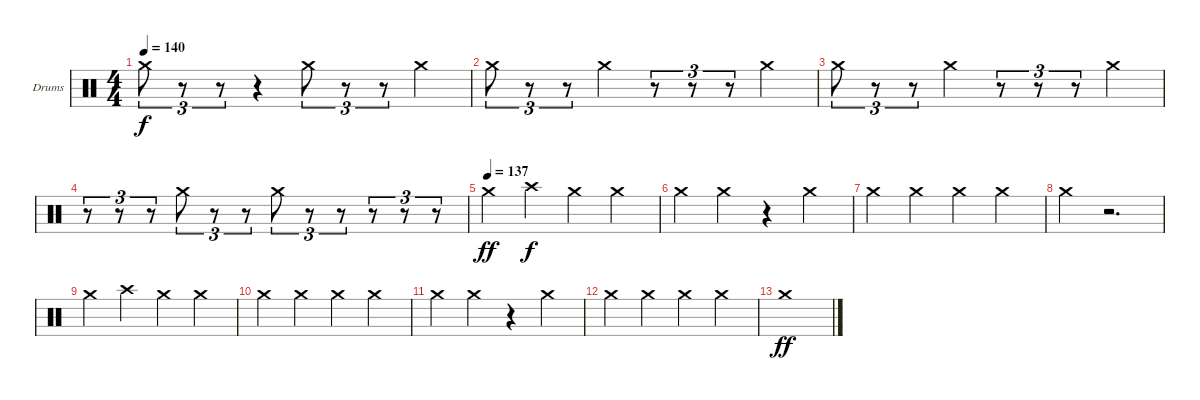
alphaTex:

\defaultSystemsLayout 4
\bracketExtendMode groupsimilarinstruments
\firstSystemTrackNameOrientation horizontal
\otherSystemsTrackNameOrientation horizontal
\track ("Drumkit" "Drums") {instrument percussion}
\staff {score}
\articulation defaults
\ts (4 4)
\tempo 140
\clef neutral
\scale
0.333333
\ks c "Crash medium (hit)".8{tu (3 2) dy f}
r.8{tu (3 2)} r.8{tu (3 2)} r.4 "Crash medium (hit)".8{tu (3 2)} r.8{tu (3 2)} r.8{tu (3 2)} "Crash medium (hit)".4 |
\scale
0.333333 "Crash medium (hit)".8{tu (3 2)} r.8{tu (3 2)} r.8{tu (3 2)} "Crash medium (hit)".4 r.8{tu (3 2)} r.8{tu (3 2)} r.8{tu (3 2)} "Crash medium (hit)".4 |
\scale
0.333333 "Crash medium (hit)".8{tu (3 2)} r.8{tu (3 2)} r.8{tu (3 2)} "Crash medium (hit)".4 r.8{tu (3 2)} r.8{tu (3 2)} r.8{tu (3 2)} "Crash medium (hit)".4 |
\scale
0.333333 r.8{tu (3 2)} r.8{tu (3 2)} r.8{tu (3 2)} "Crash medium (hit)".8{tu (3 2)} r.8{tu (3 2)} r.8{tu (3 2)} "Crash medium (hit)".8{tu (3 2)} r.8{tu (3 2)} r.8{tu (3 2)} r.8{tu (3 2)} r.8{tu (3 2)} r.8{tu (3 2)} |
\tempo 137
\scale
0.333333 "Crash medium (hit)".4{dy ff} "Crash high (hit)".4{dy f} "Crash medium (hit)".4 "Crash medium (hit)".4 |
\scale
0.333333 "Crash medium (hit)".4 "Crash medium (hit)".4 r.4 "Crash medium (hit)".4 |
\scale
0.333333 "Crash medium (hit)".4 "Crash medium (hit)".4 "Crash medium (hit)".4 "Crash medium (hit)".4 |
\scale
0.333333 "Crash medium (hit)".4 r.2{d} |
\scale
0.333333 "Crash medium (hit)".4 "Crash high (hit)".4 "Crash medium (hit)".4 "Crash medium (hit)".4 |
\scale
0.333333 "Crash medium (hit)".4 "Crash medium (hit)".4 "Crash medium (hit)".4 "Crash medium (hit)".4 |
\scale
0.333333 "Crash medium (hit)".4 "Crash medium (hit)".4 r.4 "Crash medium (hit)".4 |
\scale
0.333333 "Crash medium (hit)".4 "Crash medium (hit)".4 "Crash medium (hit)".4 "Crash medium (hit)".4 |
\scale
0.333333 "Crash medium (hit)".1{dy ff} |
\scale
0.333333 |
\scale
0.333333 |
\scale
0.333333
